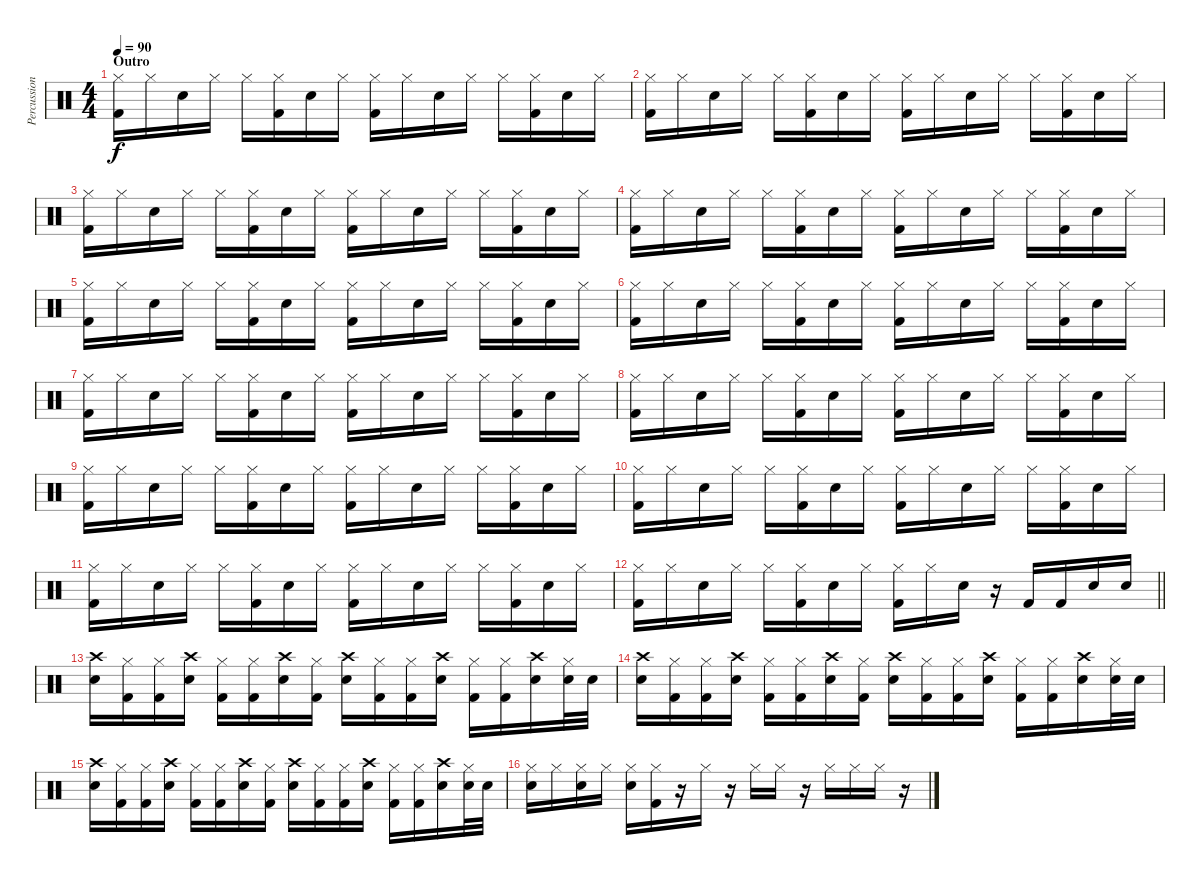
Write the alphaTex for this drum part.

\track ("Percussion" "Percussion") {instrument percussion}
\staff {score}
\articulation defaults
\ts (4 4)
\section ("" "Outro")
\tempo 90
\clef neutral
\ks c
("Hi-Hat (closed)" "Kick (hit) 2").16{dy f} "Hi-Hat (closed)".16 "Snare (hit) 2".16 "Hi-Hat (closed)".16 "Hi-Hat (closed)".16 ("Hi-Hat (closed)" "Kick (hit) 2").16 "Snare (hit) 2".16 "Hi-Hat (closed)".16 ("Hi-Hat (closed)" "Kick (hit) 2").16 "Hi-Hat (closed)".16 "Snare (hit) 2".16 "Hi-Hat (closed)".16 "Hi-Hat (closed)".16 ("Hi-Hat (closed)" "Kick (hit) 2").16 "Snare (hit) 2".16 "Hi-Hat (closed)".16 |
("Hi-Hat (closed)" "Kick (hit) 2").16 "Hi-Hat (closed)".16 "Snare (hit) 2".16 "Hi-Hat (closed)".16 "Hi-Hat (closed)".16 ("Hi-Hat (closed)" "Kick (hit) 2").16 "Snare (hit) 2".16 "Hi-Hat (closed)".16 ("Hi-Hat (closed)" "Kick (hit) 2").16 "Hi-Hat (closed)".16 "Snare (hit) 2".16 "Hi-Hat (closed)".16 "Hi-Hat (closed)".16 ("Hi-Hat (closed)" "Kick (hit) 2").16 "Snare (hit) 2".16 "Hi-Hat (closed)".16 |
("Hi-Hat (closed)" "Kick (hit) 2").16 "Hi-Hat (closed)".16 "Snare (hit) 2".16 "Hi-Hat (closed)".16 "Hi-Hat (closed)".16 ("Hi-Hat (closed)" "Kick (hit) 2").16 "Snare (hit) 2".16 "Hi-Hat (closed)".16 ("Hi-Hat (closed)" "Kick (hit) 2").16 "Hi-Hat (closed)".16 "Snare (hit) 2".16 "Hi-Hat (closed)".16 "Hi-Hat (closed)".16 ("Hi-Hat (closed)" "Kick (hit) 2").16 "Snare (hit) 2".16 "Hi-Hat (closed)".16 |
("Hi-Hat (closed)" "Kick (hit) 2").16 "Hi-Hat (closed)".16 "Snare (hit) 2".16 "Hi-Hat (closed)".16 "Hi-Hat (closed)".16 ("Hi-Hat (closed)" "Kick (hit) 2").16 "Snare (hit) 2".16 "Hi-Hat (closed)".16 ("Hi-Hat (closed)" "Kick (hit) 2").16 "Hi-Hat (closed)".16 "Snare (hit) 2".16 "Hi-Hat (closed)".16 "Hi-Hat (closed)".16 ("Hi-Hat (closed)" "Kick (hit) 2").16 "Snare (hit) 2".16 "Hi-Hat (closed)".16 |
("Hi-Hat (closed)" "Kick (hit) 2").16 "Hi-Hat (closed)".16 "Snare (hit) 2".16 "Hi-Hat (closed)".16 "Hi-Hat (closed)".16 ("Hi-Hat (closed)" "Kick (hit) 2").16 "Snare (hit) 2".16 "Hi-Hat (closed)".16 ("Hi-Hat (closed)" "Kick (hit) 2").16 "Hi-Hat (closed)".16 "Snare (hit) 2".16 "Hi-Hat (closed)".16 "Hi-Hat (closed)".16 ("Hi-Hat (closed)" "Kick (hit) 2").16 "Snare (hit) 2".16 "Hi-Hat (closed)".16 |
("Hi-Hat (closed)" "Kick (hit) 2").16 "Hi-Hat (closed)".16 "Snare (hit) 2".16 "Hi-Hat (closed)".16 "Hi-Hat (closed)".16 ("Hi-Hat (closed)" "Kick (hit) 2").16 "Snare (hit) 2".16 "Hi-Hat (closed)".16 ("Hi-Hat (closed)" "Kick (hit) 2").16 "Hi-Hat (closed)".16 "Snare (hit) 2".16 "Hi-Hat (closed)".16 "Hi-Hat (closed)".16 ("Hi-Hat (closed)" "Kick (hit) 2").16 "Snare (hit) 2".16 "Hi-Hat (closed)".16 |
("Hi-Hat (closed)" "Kick (hit) 2").16 "Hi-Hat (closed)".16 "Snare (hit) 2".16 "Hi-Hat (closed)".16 "Hi-Hat (closed)".16 ("Hi-Hat (closed)" "Kick (hit) 2").16 "Snare (hit) 2".16 "Hi-Hat (closed)".16 ("Hi-Hat (closed)" "Kick (hit) 2").16 "Hi-Hat (closed)".16 "Snare (hit) 2".16 "Hi-Hat (closed)".16 "Hi-Hat (closed)".16 ("Hi-Hat (closed)" "Kick (hit) 2").16 "Snare (hit) 2".16 "Hi-Hat (closed)".16 |
("Hi-Hat (closed)" "Kick (hit) 2").16 "Hi-Hat (closed)".16 "Snare (hit) 2".16 "Hi-Hat (closed)".16 "Hi-Hat (closed)".16 ("Hi-Hat (closed)" "Kick (hit) 2").16 "Snare (hit) 2".16 "Hi-Hat (closed)".16 ("Hi-Hat (closed)" "Kick (hit) 2").16 "Hi-Hat (closed)".16 "Snare (hit) 2".16 "Hi-Hat (closed)".16 "Hi-Hat (closed)".16 ("Hi-Hat (closed)" "Kick (hit) 2").16 "Snare (hit) 2".16 "Hi-Hat (closed)".16 |
("Hi-Hat (closed)" "Kick (hit) 2").16 "Hi-Hat (closed)".16 "Snare (hit) 2".16 "Hi-Hat (closed)".16 "Hi-Hat (closed)".16 ("Hi-Hat (closed)" "Kick (hit) 2").16 "Snare (hit) 2".16 "Hi-Hat (closed)".16 ("Hi-Hat (closed)" "Kick (hit) 2").16 "Hi-Hat (closed)".16 "Snare (hit) 2".16 "Hi-Hat (closed)".16 "Hi-Hat (closed)".16 ("Hi-Hat (closed)" "Kick (hit) 2").16 "Snare (hit) 2".16 "Hi-Hat (closed)".16 |
("Hi-Hat (closed)" "Kick (hit) 2").16 "Hi-Hat (closed)".16 "Snare (hit) 2".16 "Hi-Hat (closed)".16 "Hi-Hat (closed)".16 ("Hi-Hat (closed)" "Kick (hit) 2").16 "Snare (hit) 2".16 "Hi-Hat (closed)".16 ("Hi-Hat (closed)" "Kick (hit) 2").16 "Hi-Hat (closed)".16 "Snare (hit) 2".16 "Hi-Hat (closed)".16 "Hi-Hat (closed)".16 ("Hi-Hat (closed)" "Kick (hit) 2").16 "Snare (hit) 2".16 "Hi-Hat (closed)".16 |
("Hi-Hat (closed)" "Kick (hit) 2").16 "Hi-Hat (closed)".16 "Snare (hit) 2".16 "Hi-Hat (closed)".16 "Hi-Hat (closed)".16 ("Hi-Hat (closed)" "Kick (hit) 2").16 "Snare (hit) 2".16 "Hi-Hat (closed)".16 ("Hi-Hat (closed)" "Kick (hit) 2").16 "Hi-Hat (closed)".16 "Snare (hit) 2".16 "Hi-Hat (closed)".16 "Hi-Hat (closed)".16 ("Hi-Hat (closed)" "Kick (hit) 2").16 "Snare (hit) 2".16 "Hi-Hat (closed)".16 |
\barLineRight lightlight
("Hi-Hat (closed)" "Kick (hit) 2").16 "Hi-Hat (closed)".16 "Snare (hit) 2".16 "Hi-Hat (closed)".16 "Hi-Hat (closed)".16 ("Hi-Hat (closed)" "Kick (hit) 2").16 "Snare (hit) 2".16 "Hi-Hat (closed)".16 ("Hi-Hat (closed)" "Kick (hit) 2").16 "Hi-Hat (closed)".16 "Snare (hit) 2".16 r.16 "Kick (hit) 2".16 "Kick (hit) 2".16 "Snare (hit) 2".16 "Snare (hit) 2".16 |
("Crash high (hit)" "Snare (hit) 2").16 ("Hi-Hat (closed)" "Kick (hit) 2").16 ("Hi-Hat (closed)" "Kick (hit) 2").16 ("Crash high (hit)" "Snare (hit) 2").16 ("Hi-Hat (closed)" "Kick (hit) 2").16 ("Hi-Hat (closed)" "Kick (hit) 2").16 ("Crash high (hit)" "Snare (hit) 2").16 ("Hi-Hat (closed)" "Kick (hit) 2").16 ("Crash high (hit)" "Snare (hit) 2").16 ("Hi-Hat (closed)" "Kick (hit) 2").16 ("Hi-Hat (closed)" "Kick (hit) 2").16 ("Crash high (hit)" "Snare (hit) 2").16 ("Hi-Hat (closed)" "Kick (hit) 2").16 ("Hi-Hat (closed)" "Kick (hit) 2").16 ("Crash high (hit)" "Snare (hit) 2").16 ("Hi-Hat (closed)" "Snare (hit) 2").32 "Snare (hit) 2".32 |
("Crash high (hit)" "Snare (hit) 2").16 ("Hi-Hat (closed)" "Kick (hit) 2").16 ("Hi-Hat (closed)" "Kick (hit) 2").16 ("Crash high (hit)" "Snare (hit) 2").16 ("Hi-Hat (closed)" "Kick (hit) 2").16 ("Hi-Hat (closed)" "Kick (hit) 2").16 ("Crash high (hit)" "Snare (hit) 2").16 ("Hi-Hat (closed)" "Kick (hit) 2").16 ("Crash high (hit)" "Snare (hit) 2").16 ("Hi-Hat (closed)" "Kick (hit) 2").16 ("Hi-Hat (closed)" "Kick (hit) 2").16 ("Crash high (hit)" "Snare (hit) 2").16 ("Hi-Hat (closed)" "Kick (hit) 2").16 ("Hi-Hat (closed)" "Kick (hit) 2").16 ("Crash high (hit)" "Snare (hit) 2").16 ("Hi-Hat (closed)" "Snare (hit) 2").32 "Snare (hit) 2".32 |
("Crash high (hit)" "Snare (hit) 2").16 ("Hi-Hat (closed)" "Kick (hit) 2").16 ("Hi-Hat (closed)" "Kick (hit) 2").16 ("Crash high (hit)" "Snare (hit) 2").16 ("Hi-Hat (closed)" "Kick (hit) 2").16 ("Hi-Hat (closed)" "Kick (hit) 2").16 ("Crash high (hit)" "Snare (hit) 2").16 ("Hi-Hat (closed)" "Kick (hit) 2").16 ("Crash high (hit)" "Snare (hit) 2").16 ("Hi-Hat (closed)" "Kick (hit) 2").16 ("Hi-Hat (closed)" "Kick (hit) 2").16 ("Crash high (hit)" "Snare (hit) 2").16 ("Hi-Hat (closed)" "Kick (hit) 2").16 ("Hi-Hat (closed)" "Kick (hit) 2").16 ("Crash high (hit)" "Snare (hit) 2").16 ("Hi-Hat (closed)" "Snare (hit) 2").32 "Snare (hit) 2".32 |
("Hi-Hat (closed)" "Snare (hit) 2").16 "Hi-Hat (closed)".16 ("Hi-Hat (closed)" "Snare (hit) 2").16 "Hi-Hat (closed)".16 ("Hi-Hat (closed)" "Snare (hit) 2").16 ("Hi-Hat (closed)" "Kick (hit) 2").16 r.16 "Hi-Hat (closed)".16 r.16 "Hi-Hat (closed)".16 "Hi-Hat (closed)".16 r.16 "Hi-Hat (closed)".16 "Hi-Hat (closed)".16 "Hi-Hat (closed)".16 r.16
